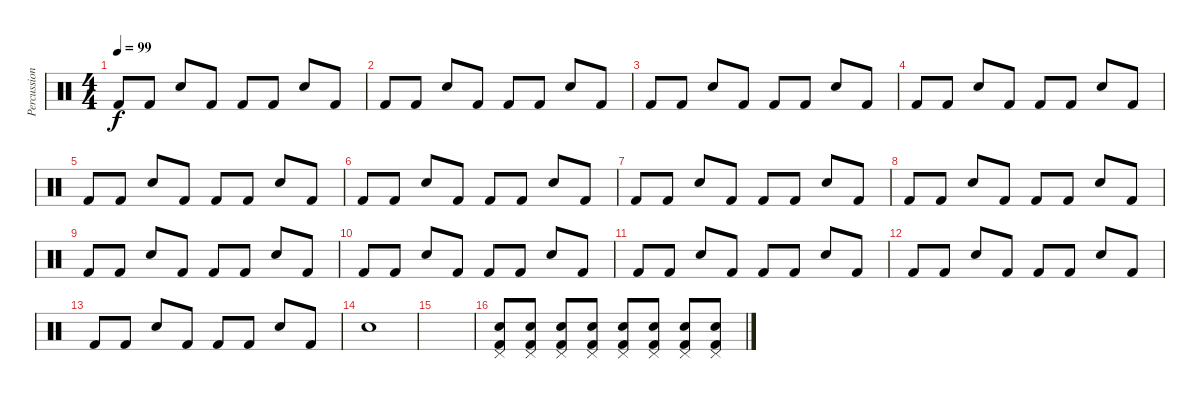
\track ("Percussion" "Percussion") {instrument percussion}
\staff {score}
\articulation defaults
\ts (4 4)
\tempo 99
\clef neutral
\ks c "Kick (hit) 2".8{dy f} "Kick (hit) 2".8 "Electric Snare (hit)".8 "Kick (hit) 2".8 "Kick (hit) 2".8 "Kick (hit) 2".8 "Electric Snare (hit)".8 "Kick (hit) 2".8
|
"Kick (hit) 2".8 "Kick (hit) 2".8 "Electric Snare (hit)".8 "Kick (hit) 2".8 "Kick (hit) 2".8 "Kick (hit) 2".8 "Electric Snare (hit)".8 "Kick (hit) 2".8 |
"Kick (hit) 2".8 "Kick (hit) 2".8 "Electric Snare (hit)".8 "Kick (hit) 2".8 "Kick (hit) 2".8 "Kick (hit) 2".8 "Electric Snare (hit)".8 "Kick (hit) 2".8 |
"Kick (hit) 2".8 "Kick (hit) 2".8 "Electric Snare (hit)".8 "Kick (hit) 2".8 "Kick (hit) 2".8 "Kick (hit) 2".8 "Electric Snare (hit)".8 "Kick (hit) 2".8 |
"Kick (hit) 2".8 "Kick (hit) 2".8 "Electric Snare (hit)".8 "Kick (hit) 2".8 "Kick (hit) 2".8 "Kick (hit) 2".8 "Electric Snare (hit)".8 "Kick (hit) 2".8 |
"Kick (hit) 2".8 "Kick (hit) 2".8 "Electric Snare (hit)".8 "Kick (hit) 2".8 "Kick (hit) 2".8 "Kick (hit) 2".8 "Electric Snare (hit)".8 "Kick (hit) 2".8 |
"Kick (hit) 2".8 "Kick (hit) 2".8 "Electric Snare (hit)".8 "Kick (hit) 2".8 "Kick (hit) 2".8 "Kick (hit) 2".8 "Electric Snare (hit)".8 "Kick (hit) 2".8 |
"Kick (hit) 2".8 "Kick (hit) 2".8 "Electric Snare (hit)".8 "Kick (hit) 2".8 "Kick (hit) 2".8 "Kick (hit) 2".8 "Electric Snare (hit)".8 "Kick (hit) 2".8 |
"Kick (hit) 2".8 "Kick (hit) 2".8 "Electric Snare (hit)".8 "Kick (hit) 2".8 "Kick (hit) 2".8 "Kick (hit) 2".8 "Electric Snare (hit)".8 "Kick (hit) 2".8 |
"Kick (hit) 2".8 "Kick (hit) 2".8 "Electric Snare (hit)".8 "Kick (hit) 2".8 "Kick (hit) 2".8 "Kick (hit) 2".8 "Electric Snare (hit)".8 "Kick (hit) 2".8 |
"Kick (hit) 2".8 "Kick (hit) 2".8 "Electric Snare (hit)".8 "Kick (hit) 2".8 "Kick (hit) 2".8 "Kick (hit) 2".8 "Electric Snare (hit)".8 "Kick (hit) 2".8 |
"Kick (hit) 2".8 "Kick (hit) 2".8 "Electric Snare (hit)".8 "Kick (hit) 2".8 "Kick (hit) 2".8 "Kick (hit) 2".8 "Electric Snare (hit)".8 "Kick (hit) 2".8 |
"Kick (hit) 2".8 "Kick (hit) 2".8 "Electric Snare (hit)".8 "Kick (hit) 2".8 "Kick (hit) 2".8 "Kick (hit) 2".8 "Electric Snare (hit)".8 "Kick (hit) 2".8 |
"Electric Snare (hit)".1 |
|
("Pedal Hi-Hat (hit)" "Electric Snare (hit)" "Kick (hit) 2").8 ("Pedal Hi-Hat (hit)" "Electric Snare (hit)" "Kick (hit) 2").8 ("Pedal Hi-Hat (hit)" "Electric Snare (hit)" "Kick (hit) 2").8 ("Pedal Hi-Hat (hit)" "Electric Snare (hit)" "Kick (hit) 2").8 ("Pedal Hi-Hat (hit)" "Electric Snare (hit)" "Kick (hit) 2").8 ("Pedal Hi-Hat (hit)" "Electric Snare (hit)" "Kick (hit) 2").8 ("Pedal Hi-Hat (hit)" "Electric Snare (hit)" "Kick (hit) 2").8 ("Pedal Hi-Hat (hit)" "Electric Snare (hit)" "Kick (hit) 2").8
